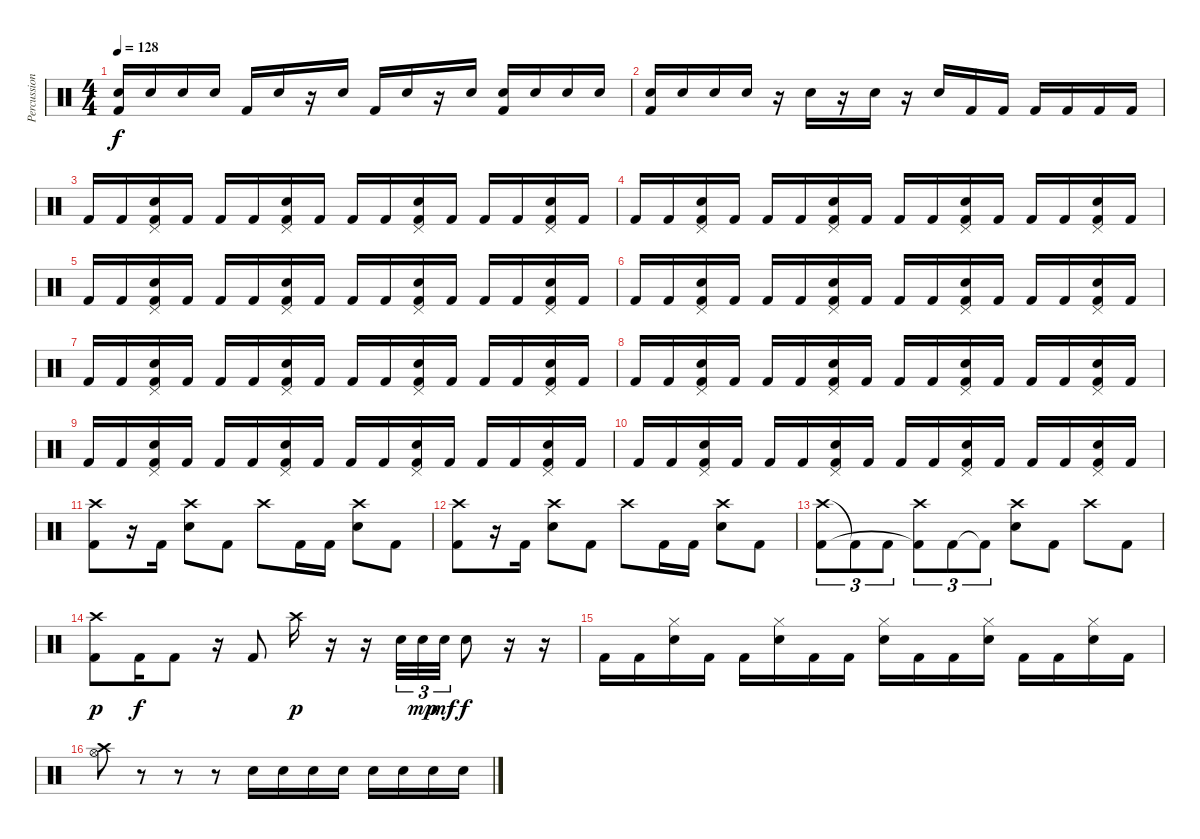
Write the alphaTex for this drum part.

\track ("Percussion" "Percussion") {instrument percussion}
\staff {score}
\articulation defaults
\ts (4 4)
\tempo 128
\clef neutral
\ks c
("Snare (hit) 2" "Kick (hit) 2").16{dy f} "Snare (hit) 2".16 "Snare (hit) 2".16 "Snare (hit) 2".16 "Kick (hit) 2".16 "Snare (hit) 2".16 r.16 "Snare (hit) 2".16 "Kick (hit) 2".16 "Snare (hit) 2".16 r.16 "Snare (hit) 2".16 ("Snare (hit) 2" "Kick (hit) 2").16 "Snare (hit) 2".16 "Snare (hit) 2".16 "Snare (hit) 2".16 |
("Snare (hit) 2" "Kick (hit) 2").16 "Snare (hit) 2".16 "Snare (hit) 2".16 "Snare (hit) 2".16 r.16 "Snare (hit) 2".16 r.16 "Snare (hit) 2".16 r.16 "Snare (hit) 2".16 "Kick (hit) 2".16 "Kick (hit) 2".16 "Kick (hit) 2".16 "Kick (hit) 2".16 "Kick (hit) 2".16 "Kick (hit) 2".16 |
"Kick (hit) 2".16 "Kick (hit) 2".16 ("Pedal Hi-Hat (hit)" "Snare (hit) 2" "Kick (hit) 2").16 "Kick (hit) 2".16 "Kick (hit) 2".16 "Kick (hit) 2".16 ("Pedal Hi-Hat (hit)" "Snare (hit) 2" "Kick (hit) 2").16 "Kick (hit) 2".16 "Kick (hit) 2".16 "Kick (hit) 2".16 ("Pedal Hi-Hat (hit)" "Snare (hit) 2" "Kick (hit) 2").16 "Kick (hit) 2".16 "Kick (hit) 2".16 "Kick (hit) 2".16 ("Pedal Hi-Hat (hit)" "Snare (hit) 2" "Kick (hit) 2").16 "Kick (hit) 2".16 |
"Kick (hit) 2".16 "Kick (hit) 2".16 ("Pedal Hi-Hat (hit)" "Snare (hit) 2" "Kick (hit) 2").16 "Kick (hit) 2".16 "Kick (hit) 2".16 "Kick (hit) 2".16 ("Pedal Hi-Hat (hit)" "Snare (hit) 2" "Kick (hit) 2").16 "Kick (hit) 2".16 "Kick (hit) 2".16 "Kick (hit) 2".16 ("Pedal Hi-Hat (hit)" "Snare (hit) 2" "Kick (hit) 2").16 "Kick (hit) 2".16 "Kick (hit) 2".16 "Kick (hit) 2".16 ("Pedal Hi-Hat (hit)" "Snare (hit) 2" "Kick (hit) 2").16 "Kick (hit) 2".16 |
"Kick (hit) 2".16 "Kick (hit) 2".16 ("Pedal Hi-Hat (hit)" "Snare (hit) 2" "Kick (hit) 2").16 "Kick (hit) 2".16 "Kick (hit) 2".16 "Kick (hit) 2".16 ("Pedal Hi-Hat (hit)" "Snare (hit) 2" "Kick (hit) 2").16 "Kick (hit) 2".16 "Kick (hit) 2".16 "Kick (hit) 2".16 ("Pedal Hi-Hat (hit)" "Snare (hit) 2" "Kick (hit) 2").16 "Kick (hit) 2".16 "Kick (hit) 2".16 "Kick (hit) 2".16 ("Pedal Hi-Hat (hit)" "Snare (hit) 2" "Kick (hit) 2").16 "Kick (hit) 2".16 |
"Kick (hit) 2".16 "Kick (hit) 2".16 ("Pedal Hi-Hat (hit)" "Snare (hit) 2" "Kick (hit) 2").16 "Kick (hit) 2".16 "Kick (hit) 2".16 "Kick (hit) 2".16 ("Pedal Hi-Hat (hit)" "Snare (hit) 2" "Kick (hit) 2").16 "Kick (hit) 2".16 "Kick (hit) 2".16 "Kick (hit) 2".16 ("Pedal Hi-Hat (hit)" "Snare (hit) 2" "Kick (hit) 2").16 "Kick (hit) 2".16 "Kick (hit) 2".16 "Kick (hit) 2".16 ("Pedal Hi-Hat (hit)" "Snare (hit) 2" "Kick (hit) 2").16 "Kick (hit) 2".16 |
"Kick (hit) 2".16 "Kick (hit) 2".16 ("Pedal Hi-Hat (hit)" "Snare (hit) 2" "Kick (hit) 2").16 "Kick (hit) 2".16 "Kick (hit) 2".16 "Kick (hit) 2".16 ("Pedal Hi-Hat (hit)" "Snare (hit) 2" "Kick (hit) 2").16 "Kick (hit) 2".16 "Kick (hit) 2".16 "Kick (hit) 2".16 ("Pedal Hi-Hat (hit)" "Snare (hit) 2" "Kick (hit) 2").16 "Kick (hit) 2".16 "Kick (hit) 2".16 "Kick (hit) 2".16 ("Pedal Hi-Hat (hit)" "Snare (hit) 2" "Kick (hit) 2").16 "Kick (hit) 2".16 |
"Kick (hit) 2".16 "Kick (hit) 2".16 ("Pedal Hi-Hat (hit)" "Snare (hit) 2" "Kick (hit) 2").16 "Kick (hit) 2".16 "Kick (hit) 2".16 "Kick (hit) 2".16 ("Pedal Hi-Hat (hit)" "Snare (hit) 2" "Kick (hit) 2").16 "Kick (hit) 2".16 "Kick (hit) 2".16 "Kick (hit) 2".16 ("Pedal Hi-Hat (hit)" "Snare (hit) 2" "Kick (hit) 2").16 "Kick (hit) 2".16 "Kick (hit) 2".16 "Kick (hit) 2".16 ("Pedal Hi-Hat (hit)" "Snare (hit) 2" "Kick (hit) 2").16 "Kick (hit) 2".16 |
"Kick (hit) 2".16 "Kick (hit) 2".16 ("Pedal Hi-Hat (hit)" "Snare (hit) 2" "Kick (hit) 2").16 "Kick (hit) 2".16 "Kick (hit) 2".16 "Kick (hit) 2".16 ("Pedal Hi-Hat (hit)" "Snare (hit) 2" "Kick (hit) 2").16 "Kick (hit) 2".16 "Kick (hit) 2".16 "Kick (hit) 2".16 ("Pedal Hi-Hat (hit)" "Snare (hit) 2" "Kick (hit) 2").16 "Kick (hit) 2".16 "Kick (hit) 2".16 "Kick (hit) 2".16 ("Pedal Hi-Hat (hit)" "Snare (hit) 2" "Kick (hit) 2").16 "Kick (hit) 2".16 |
"Kick (hit) 2".16 "Kick (hit) 2".16 ("Pedal Hi-Hat (hit)" "Snare (hit) 2" "Kick (hit) 2").16 "Kick (hit) 2".16 "Kick (hit) 2".16 "Kick (hit) 2".16 ("Pedal Hi-Hat (hit)" "Snare (hit) 2" "Kick (hit) 2").16 "Kick (hit) 2".16 "Kick (hit) 2".16 "Kick (hit) 2".16 ("Pedal Hi-Hat (hit)" "Snare (hit) 2" "Kick (hit) 2").16 "Kick (hit) 2".16 "Kick (hit) 2".16 "Kick (hit) 2".16 ("Pedal Hi-Hat (hit)" "Snare (hit) 2" "Kick (hit) 2").16 "Kick (hit) 2".16 |
("Crash high (hit)" "Kick (hit) 2").8 r.16 "Kick (hit) 2".16 ("Crash high (hit)" "Snare (hit) 2").8 "Kick (hit) 2".8 "Crash high (hit)".8 "Kick (hit) 2".16 "Kick (hit) 2".16 ("Crash high (hit)" "Snare (hit) 2").8 "Kick (hit) 2".8 |
("Crash high (hit)" "Kick (hit) 2").8 r.16 "Kick (hit) 2".16 ("Crash high (hit)" "Snare (hit) 2").8 "Kick (hit) 2".8 "Crash high (hit)".8 "Kick (hit) 2".16 "Kick (hit) 2".16 ("Crash high (hit)" "Snare (hit) 2").8 "Kick (hit) 2".8 |
("Crash high (hit)" "Kick (hit) 2").8{tu (3 2)} "Kick (hit) 2"{t}.8{tu (3 2)} "Kick (hit) 2".8{tu (3 2)} ("Crash high (hit)" "Kick (hit) 2"{t}).8{tu (3 2)} "Kick (hit) 2".8{tu (3 2)} "Kick (hit) 2"{t}.8{tu (3 2)} ("Crash high (hit)" "Snare (hit) 2").8 "Kick (hit) 2".8 "Crash high (hit)".8 "Kick (hit) 2".8 |
("Crash high (hit)" "Kick (hit) 2").8{dy p} "Kick (hit) 2".16{dy f} "Kick (hit) 2".8 r.16 "Kick (hit) 2".8 "Crash high (hit)".16{dy p} r.16 r.16 "Snare (hit) 2".32{tu (3 2)} "Snare (hit) 2".32{tu (3 2) dy mp} "Snare (hit) 2".32{tu (3 2) dy mf} "Snare (hit) 2".8{dy f} r.16 r.16 |
"Kick (hit) 2".16 "Kick (hit) 2".16 ("Hi-Hat (closed)" "Snare (hit) 2").16 "Kick (hit) 2".16 "Kick (hit) 2".16 ("Hi-Hat (closed)" "Snare (hit) 2").16 "Kick (hit) 2".16 "Kick (hit) 2".16 ("Hi-Hat (closed)" "Snare (hit) 2").16 "Kick (hit) 2".16 "Kick (hit) 2".16 ("Hi-Hat (closed)" "Snare (hit) 2").16 "Kick (hit) 2".16 "Kick (hit) 2".16 ("Hi-Hat (closed)" "Snare (hit) 2").16 "Kick (hit) 2".16 |
("Crash high (hit)" "Hi-Hat (open)").8 r.8 r.8 r.8 "Snare (hit) 2".16 "Snare (hit) 2".16 "Snare (hit) 2".16 "Snare (hit) 2".16 "Snare (hit) 2".16 "Snare (hit) 2".16 "Snare (hit) 2".16 "Snare (hit) 2".16
